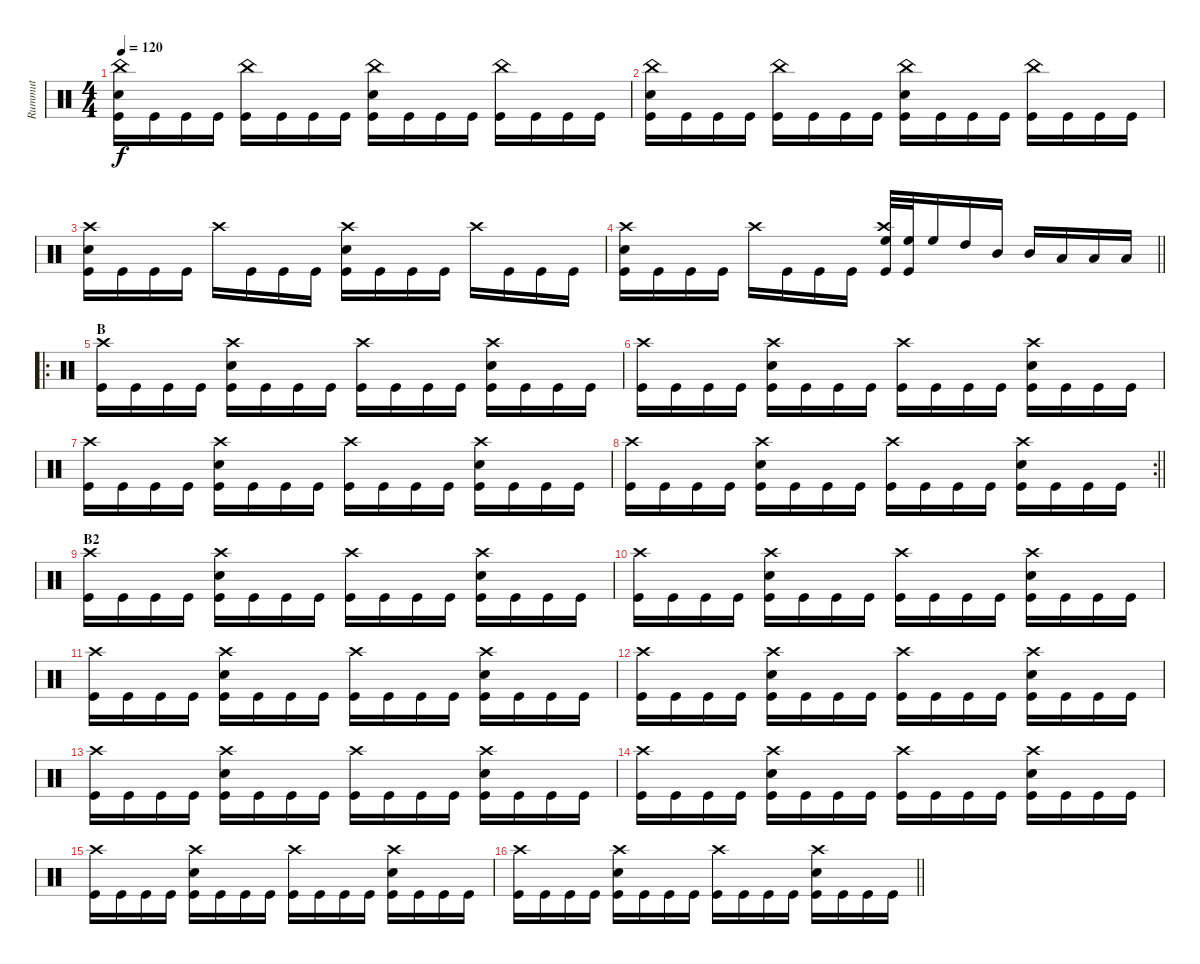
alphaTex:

\track ("Rummut" "Rummut") {instrument percussion}
\staff {score}
\articulation defaults
\ts (4 4)
\tempo 120
\clef neutral
\ks c
("Kick (hit)" "Snare (hit) 2" "China (hit)").16{dy f} "Kick (hit)".16 "Kick (hit)".16 "Kick (hit)".16 ("Kick (hit)" "China (hit)").16 "Kick (hit)".16 "Kick (hit)".16 "Kick (hit)".16 ("Kick (hit)" "Snare (hit) 2" "China (hit)").16 "Kick (hit)".16 "Kick (hit)".16 "Kick (hit)".16 ("Kick (hit)" "China (hit)").16 "Kick (hit)".16 "Kick (hit)".16 "Kick (hit)".16 |
("Kick (hit)" "Snare (hit) 2" "China (hit)").16 "Kick (hit)".16 "Kick (hit)".16 "Kick (hit)".16 ("Kick (hit)" "China (hit)").16 "Kick (hit)".16 "Kick (hit)".16 "Kick (hit)".16 ("Kick (hit)" "Snare (hit) 2" "China (hit)").16 "Kick (hit)".16 "Kick (hit)".16 "Kick (hit)".16 ("Kick (hit)" "China (hit)").16 "Kick (hit)".16 "Kick (hit)".16 "Kick (hit)".16 |
("Crash high (hit)" "Snare (hit) 2" "Kick (hit)").16 "Kick (hit)".16 "Kick (hit)".16 "Kick (hit)".16 "Crash high (hit)".16 "Kick (hit)".16 "Kick (hit)".16 "Kick (hit)".16 ("Crash high (hit)" "Snare (hit) 2" "Kick (hit)").16 "Kick (hit)".16 "Kick (hit)".16 "Kick (hit)".16 "Crash high (hit)".16 "Kick (hit)".16 "Kick (hit)".16 "Kick (hit)".16 |
\barLineRight lightlight
("Crash high (hit)" "Snare (hit) 2" "Kick (hit)").16 "Kick (hit)".16 "Kick (hit)".16 "Kick (hit)".16 "Crash high (hit)".16 "Kick (hit)".16 "Kick (hit)".16 "Kick (hit)".16 ("Crash high (hit)" "High Floor Tom (hit)" "Kick (hit)").32 ("High Floor Tom (hit)" "Kick (hit)").32 "High Floor Tom (hit)".16 "High Tom (hit)".16 "Mid Tom (hit)".16 "Mid Tom (hit)".16 "Low Tom (hit)".16 "Low Floor Tom (hit)".16 "Low Floor Tom (hit)".16 |
\ro
\section ("" "B")
("Crash high (hit)" "Kick (hit)").16 "Kick (hit)".16 "Kick (hit)".16 "Kick (hit)".16 ("Crash high (hit)" "Snare (hit) 2" "Kick (hit)").16 "Kick (hit)".16 "Kick (hit)".16 "Kick (hit)".16 ("Crash high (hit)" "Kick (hit)").16 "Kick (hit)".16 "Kick (hit)".16 "Kick (hit)".16 ("Crash high (hit)" "Snare (hit) 2" "Kick (hit)").16 "Kick (hit)".16 "Kick (hit)".16 "Kick (hit)".16 |
("Crash high (hit)" "Kick (hit)").16 "Kick (hit)".16 "Kick (hit)".16 "Kick (hit)".16 ("Crash high (hit)" "Snare (hit) 2" "Kick (hit)").16 "Kick (hit)".16 "Kick (hit)".16 "Kick (hit)".16 ("Crash high (hit)" "Kick (hit)").16 "Kick (hit)".16 "Kick (hit)".16 "Kick (hit)".16 ("Crash high (hit)" "Snare (hit) 2" "Kick (hit)").16 "Kick (hit)".16 "Kick (hit)".16 "Kick (hit)".16 |
("Crash high (hit)" "Kick (hit)").16 "Kick (hit)".16 "Kick (hit)".16 "Kick (hit)".16 ("Crash high (hit)" "Snare (hit) 2" "Kick (hit)").16 "Kick (hit)".16 "Kick (hit)".16 "Kick (hit)".16 ("Crash high (hit)" "Kick (hit)").16 "Kick (hit)".16 "Kick (hit)".16 "Kick (hit)".16 ("Crash high (hit)" "Snare (hit) 2" "Kick (hit)").16 "Kick (hit)".16 "Kick (hit)".16 "Kick (hit)".16 |
\rc 2
\barLineRight lightlight
("Crash high (hit)" "Kick (hit)").16 "Kick (hit)".16 "Kick (hit)".16 "Kick (hit)".16 ("Crash high (hit)" "Snare (hit) 2" "Kick (hit)").16 "Kick (hit)".16 "Kick (hit)".16 "Kick (hit)".16 ("Crash high (hit)" "Kick (hit)").16 "Kick (hit)".16 "Kick (hit)".16 "Kick (hit)".16 ("Crash high (hit)" "Snare (hit) 2" "Kick (hit)").16 "Kick (hit)".16 "Kick (hit)".16 "Kick (hit)".16 |
\section ("" "B2")
("Crash high (hit)" "Kick (hit)").16 "Kick (hit)".16 "Kick (hit)".16 "Kick (hit)".16 ("Crash high (hit)" "Snare (hit) 2" "Kick (hit)").16 "Kick (hit)".16 "Kick (hit)".16 "Kick (hit)".16 ("Crash high (hit)" "Kick (hit)").16 "Kick (hit)".16 "Kick (hit)".16 "Kick (hit)".16 ("Crash high (hit)" "Snare (hit) 2" "Kick (hit)").16 "Kick (hit)".16 "Kick (hit)".16 "Kick (hit)".16 |
("Crash high (hit)" "Kick (hit)").16 "Kick (hit)".16 "Kick (hit)".16 "Kick (hit)".16 ("Crash high (hit)" "Snare (hit) 2" "Kick (hit)").16 "Kick (hit)".16 "Kick (hit)".16 "Kick (hit)".16 ("Crash high (hit)" "Kick (hit)").16 "Kick (hit)".16 "Kick (hit)".16 "Kick (hit)".16 ("Crash high (hit)" "Snare (hit) 2" "Kick (hit)").16 "Kick (hit)".16 "Kick (hit)".16 "Kick (hit)".16 |
("Crash high (hit)" "Kick (hit)").16 "Kick (hit)".16 "Kick (hit)".16 "Kick (hit)".16 ("Crash high (hit)" "Snare (hit) 2" "Kick (hit)").16 "Kick (hit)".16 "Kick (hit)".16 "Kick (hit)".16 ("Crash high (hit)" "Kick (hit)").16 "Kick (hit)".16 "Kick (hit)".16 "Kick (hit)".16 ("Crash high (hit)" "Snare (hit) 2" "Kick (hit)").16 "Kick (hit)".16 "Kick (hit)".16 "Kick (hit)".16 |
("Crash high (hit)" "Kick (hit)").16 "Kick (hit)".16 "Kick (hit)".16 "Kick (hit)".16 ("Crash high (hit)" "Snare (hit) 2" "Kick (hit)").16 "Kick (hit)".16 "Kick (hit)".16 "Kick (hit)".16 ("Crash high (hit)" "Kick (hit)").16 "Kick (hit)".16 "Kick (hit)".16 "Kick (hit)".16 ("Crash high (hit)" "Snare (hit) 2" "Kick (hit)").16 "Kick (hit)".16 "Kick (hit)".16 "Kick (hit)".16 |
("Crash high (hit)" "Kick (hit)").16 "Kick (hit)".16 "Kick (hit)".16 "Kick (hit)".16 ("Crash high (hit)" "Snare (hit) 2" "Kick (hit)").16 "Kick (hit)".16 "Kick (hit)".16 "Kick (hit)".16 ("Crash high (hit)" "Kick (hit)").16 "Kick (hit)".16 "Kick (hit)".16 "Kick (hit)".16 ("Crash high (hit)" "Snare (hit) 2" "Kick (hit)").16 "Kick (hit)".16 "Kick (hit)".16 "Kick (hit)".16 |
("Crash high (hit)" "Kick (hit)").16 "Kick (hit)".16 "Kick (hit)".16 "Kick (hit)".16 ("Crash high (hit)" "Snare (hit) 2" "Kick (hit)").16 "Kick (hit)".16 "Kick (hit)".16 "Kick (hit)".16 ("Crash high (hit)" "Kick (hit)").16 "Kick (hit)".16 "Kick (hit)".16 "Kick (hit)".16 ("Crash high (hit)" "Snare (hit) 2" "Kick (hit)").16 "Kick (hit)".16 "Kick (hit)".16 "Kick (hit)".16 |
("Crash high (hit)" "Kick (hit)").16 "Kick (hit)".16 "Kick (hit)".16 "Kick (hit)".16 ("Crash high (hit)" "Snare (hit) 2" "Kick (hit)").16 "Kick (hit)".16 "Kick (hit)".16 "Kick (hit)".16 ("Crash high (hit)" "Kick (hit)").16 "Kick (hit)".16 "Kick (hit)".16 "Kick (hit)".16 ("Crash high (hit)" "Snare (hit) 2" "Kick (hit)").16 "Kick (hit)".16 "Kick (hit)".16 "Kick (hit)".16 |
\barLineRight lightlight
("Crash high (hit)" "Kick (hit)").16 "Kick (hit)".16 "Kick (hit)".16 "Kick (hit)".16 ("Crash high (hit)" "Snare (hit) 2" "Kick (hit)").16 "Kick (hit)".16 "Kick (hit)".16 "Kick (hit)".16 ("Crash high (hit)" "Kick (hit)").16 "Kick (hit)".16 "Kick (hit)".16 "Kick (hit)".16 ("Crash high (hit)" "Snare (hit) 2" "Kick (hit)").16 "Kick (hit)".16 "Kick (hit)".16 "Kick (hit)".16
